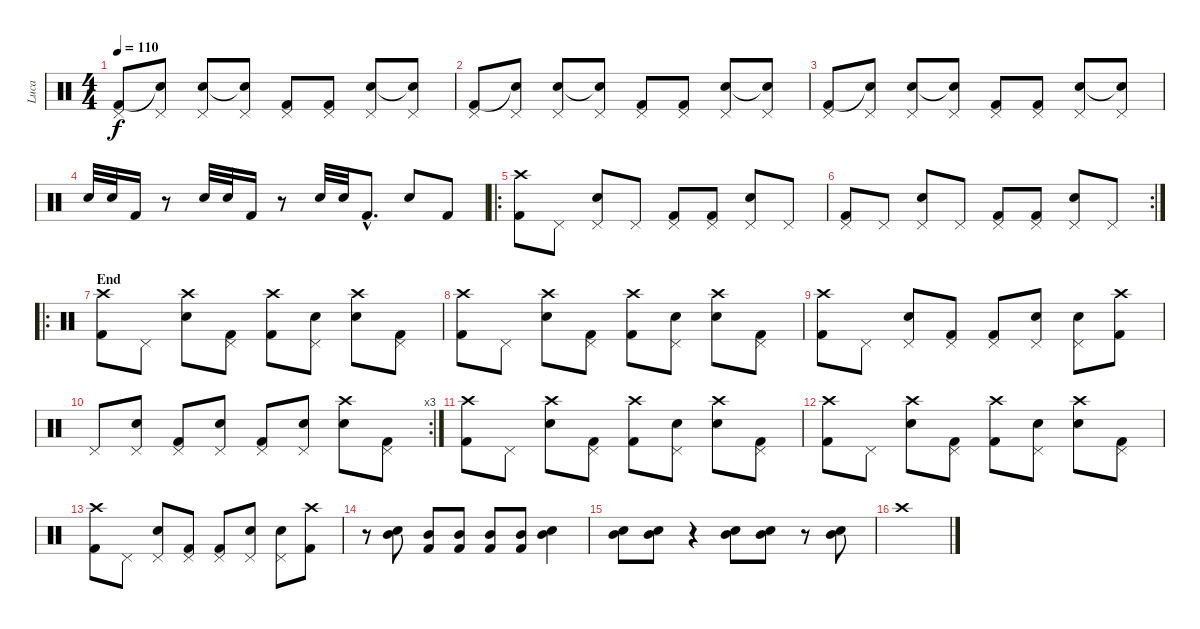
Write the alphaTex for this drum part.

\track ("Luca" "Luca") {instrument percussion}
\staff {score}
\articulation defaults
\ts (4 4)
\tempo 110
\clef neutral
\ks c
("Pedal Hi-Hat (hit)" "Kick (hit) 2").8{dy f} ("Pedal Hi-Hat (hit)" "Snare (hit) 2"{t}).8 ("Pedal Hi-Hat (hit)" "Snare (hit) 2").8 ("Pedal Hi-Hat (hit)" "Snare (hit)"{t}).8 ("Pedal Hi-Hat (hit)" "Kick (hit) 2").8 ("Pedal Hi-Hat (hit)" "Kick (hit) 2").8 ("Pedal Hi-Hat (hit)" "Snare (hit) 2").8 ("Pedal Hi-Hat (hit)" "Snare (hit)"{t}).8 |
("Pedal Hi-Hat (hit)" "Kick (hit) 2").8 ("Pedal Hi-Hat (hit)" "Snare (hit) 2"{t}).8 ("Pedal Hi-Hat (hit)" "Snare (hit) 2").8 ("Pedal Hi-Hat (hit)" "Snare (hit)"{t}).8 ("Pedal Hi-Hat (hit)" "Kick (hit) 2").8 ("Pedal Hi-Hat (hit)" "Kick (hit) 2").8 ("Pedal Hi-Hat (hit)" "Snare (hit) 2").8 ("Pedal Hi-Hat (hit)" "Snare (hit)"{t}).8 |
("Pedal Hi-Hat (hit)" "Kick (hit) 2").8 ("Pedal Hi-Hat (hit)" "Snare (hit) 2"{t}).8 ("Pedal Hi-Hat (hit)" "Snare (hit) 2").8 ("Pedal Hi-Hat (hit)" "Snare (hit)"{t}).8 ("Pedal Hi-Hat (hit)" "Kick (hit) 2").8 ("Pedal Hi-Hat (hit)" "Kick (hit) 2").8 ("Pedal Hi-Hat (hit)" "Snare (hit) 2").8 ("Pedal Hi-Hat (hit)" "Snare (hit)"{t}).8 |
"Snare (hit) 2".32 "Snare (hit) 2".32 "Kick (hit) 2".16 r.8 "Snare (hit) 2".32 "Snare (hit) 2".32 "Kick (hit) 2".16 r.8 "Snare (hit) 2".32 "Snare (hit) 2".32 "Kick (hit) 2"{hac}.8{d} "Snare (hit) 2".8 "Kick (hit) 2".8 |
\ro
("Crash high (hit)" "Kick (hit) 2").8 "Pedal Hi-Hat (hit)".8 ("Pedal Hi-Hat (hit)" "Snare (hit) 2").8 "Pedal Hi-Hat (hit)".8 ("Pedal Hi-Hat (hit)" "Kick (hit) 2").8 ("Pedal Hi-Hat (hit)" "Kick (hit) 2").8 ("Pedal Hi-Hat (hit)" "Snare (hit) 2").8 "Pedal Hi-Hat (hit)".8 |
\rc 2
("Pedal Hi-Hat (hit)" "Kick (hit) 2").8 "Pedal Hi-Hat (hit)".8 ("Pedal Hi-Hat (hit)" "Snare (hit) 2").8 "Pedal Hi-Hat (hit)".8 ("Pedal Hi-Hat (hit)" "Kick (hit) 2").8 ("Pedal Hi-Hat (hit)" "Kick (hit) 2").8 ("Pedal Hi-Hat (hit)" "Snare (hit) 2").8 "Pedal Hi-Hat (hit)".8 |
\ro
\section ("" "End")
("Crash high (hit)" "Kick (hit) 2").8 "Pedal Hi-Hat (hit)".8 ("Crash high (hit)" "Snare (hit) 2").8 ("Pedal Hi-Hat (hit)" "Kick (hit) 2").8 ("Crash high (hit)" "Kick (hit) 2").8 ("Pedal Hi-Hat (hit)" "Snare (hit) 2").8 ("Crash high (hit)" "Snare (hit) 2").8 ("Pedal Hi-Hat (hit)" "Kick (hit) 2").8 |
("Crash high (hit)" "Kick (hit) 2").8 "Pedal Hi-Hat (hit)".8 ("Crash high (hit)" "Snare (hit) 2").8 ("Pedal Hi-Hat (hit)" "Kick (hit) 2").8 ("Crash high (hit)" "Kick (hit) 2").8 ("Pedal Hi-Hat (hit)" "Snare (hit) 2").8 ("Crash high (hit)" "Snare (hit) 2").8 ("Pedal Hi-Hat (hit)" "Kick (hit) 2").8 |
("Crash high (hit)" "Kick (hit) 2").8 "Pedal Hi-Hat (hit)".8 ("Pedal Hi-Hat (hit)" "Snare (hit) 2").8 ("Pedal Hi-Hat (hit)" "Kick (hit) 2").8 ("Pedal Hi-Hat (hit)" "Kick (hit) 2").8 ("Pedal Hi-Hat (hit)" "Snare (hit) 2").8 ("Pedal Hi-Hat (hit)" "Snare (hit) 2").8 ("Crash high (hit)" "Kick (hit) 2").8 |
\rc 3 "Pedal Hi-Hat (hit)".8
("Pedal Hi-Hat (hit)" "Snare (hit) 2").8 ("Pedal Hi-Hat (hit)" "Kick (hit) 2").8 ("Pedal Hi-Hat (hit)" "Snare (hit) 2").8 ("Pedal Hi-Hat (hit)" "Kick (hit) 2").8 ("Pedal Hi-Hat (hit)" "Snare (hit) 2").8 ("Crash high (hit)" "Snare (hit) 2").8 ("Pedal Hi-Hat (hit)" "Kick (hit) 2").8 |
("Crash high (hit)" "Kick (hit) 2").8 "Pedal Hi-Hat (hit)".8 ("Crash high (hit)" "Snare (hit) 2").8 ("Pedal Hi-Hat (hit)" "Kick (hit) 2").8 ("Crash high (hit)" "Kick (hit) 2").8 ("Pedal Hi-Hat (hit)" "Snare (hit) 2").8 ("Crash high (hit)" "Snare (hit) 2").8 ("Pedal Hi-Hat (hit)" "Kick (hit) 2").8 |
("Crash high (hit)" "Kick (hit) 2").8 "Pedal Hi-Hat (hit)".8 ("Crash high (hit)" "Snare (hit) 2").8 ("Pedal Hi-Hat (hit)" "Kick (hit) 2").8 ("Crash high (hit)" "Kick (hit) 2").8 ("Pedal Hi-Hat (hit)" "Snare (hit) 2").8 ("Crash high (hit)" "Snare (hit) 2").8 ("Pedal Hi-Hat (hit)" "Kick (hit) 2").8 |
("Crash high (hit)" "Kick (hit) 2").8 "Pedal Hi-Hat (hit)".8 ("Pedal Hi-Hat (hit)" "Snare (hit) 2").8 ("Pedal Hi-Hat (hit)" "Kick (hit) 2").8 ("Pedal Hi-Hat (hit)" "Kick (hit) 2").8 ("Pedal Hi-Hat (hit)" "Snare (hit) 2").8 ("Pedal Hi-Hat (hit)" "Snare (hit) 2").8 ("Crash high (hit)" "Kick (hit) 2").8 |
r.8 ("Snare (hit) 2" "Mid Tom (hit)").8 ("Mid Tom (hit)" "Kick (hit) 2").8 ("Mid Tom (hit)" "Kick (hit) 2").8 ("Mid Tom (hit)" "Kick (hit) 2").8 ("Mid Tom (hit)" "Kick (hit) 2").8 ("Snare (hit) 2" "Mid Tom (hit)").4 |
("Snare (hit) 2" "Mid Tom (hit)").8 ("Snare (hit) 2" "Mid Tom (hit)").8 r.4 ("Snare (hit) 2" "Mid Tom (hit)").8 ("Snare (hit) 2" "Mid Tom (hit)").8 r.8 ("Snare (hit) 2" "Mid Tom (hit)").8 |
"Crash high (hit)".1
